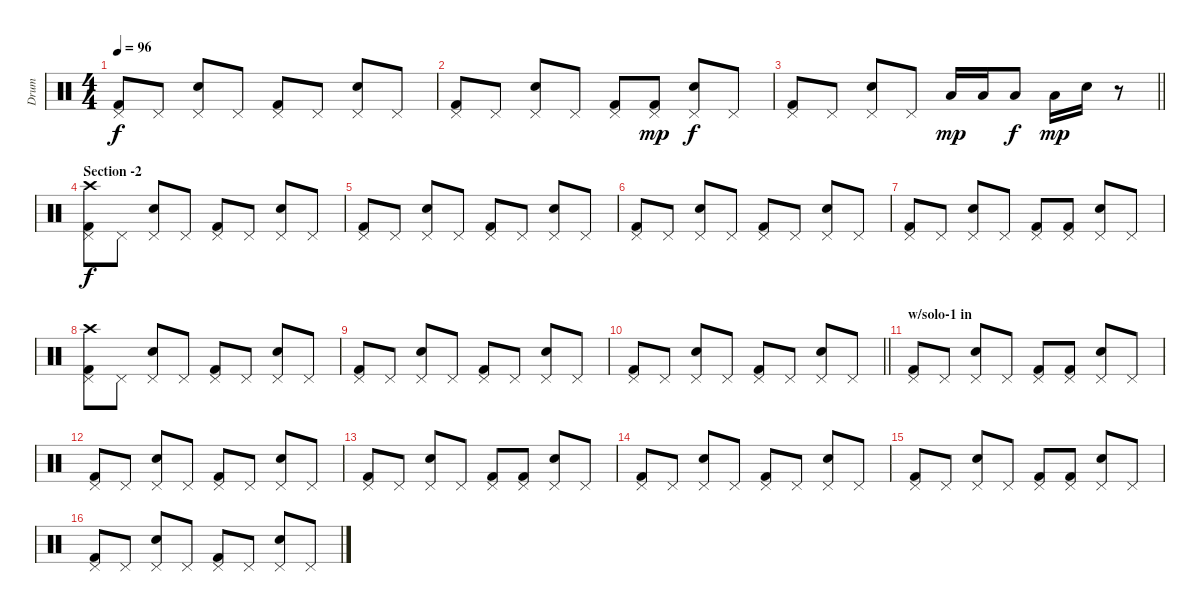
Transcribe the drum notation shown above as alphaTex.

\track ("Drum" "Drum") {instrument percussion}
\staff {score}
\articulation defaults
\ts (4 4)
\tempo 96
\clef neutral
\ks c
("Pedal Hi-Hat (hit)" "Kick (hit) 2").8{dy f} "Pedal Hi-Hat (hit)".8 ("Pedal Hi-Hat (hit)" "Snare (hit) 2").8 "Pedal Hi-Hat (hit)".8 ("Pedal Hi-Hat (hit)" "Kick (hit) 2").8 "Pedal Hi-Hat (hit)".8 ("Pedal Hi-Hat (hit)" "Snare (hit) 2").8 "Pedal Hi-Hat (hit)".8 |
("Pedal Hi-Hat (hit)" "Kick (hit) 2").8 "Pedal Hi-Hat (hit)".8 ("Pedal Hi-Hat (hit)" "Snare (hit) 2").8 "Pedal Hi-Hat (hit)".8 ("Pedal Hi-Hat (hit)" "Kick (hit) 2").8 ("Pedal Hi-Hat (hit)" "Kick (hit) 2").8{dy mp} ("Pedal Hi-Hat (hit)" "Snare (hit) 2").8{dy f} "Pedal Hi-Hat (hit)".8 |
\barLineRight lightlight
("Pedal Hi-Hat (hit)" "Kick (hit) 2").8 "Pedal Hi-Hat (hit)".8 ("Pedal Hi-Hat (hit)" "Snare (hit) 2").8 "Pedal Hi-Hat (hit)".8 "Low Tom (hit)".16{dy mp} "Low Tom (hit)".16 "Low Tom (hit)".8{dy f} "Low Tom (hit)".16{dy mp} "Snare (hit) 2".16 r.8 |
\section ("" "Section -2")
("Pedal Hi-Hat (hit)" "Crash high (hit)" "Kick (hit) 2").8{dy f} "Pedal Hi-Hat (hit)".8 ("Pedal Hi-Hat (hit)" "Snare (hit) 2").8 "Pedal Hi-Hat (hit)".8 ("Pedal Hi-Hat (hit)" "Kick (hit) 2").8 "Pedal Hi-Hat (hit)".8 ("Pedal Hi-Hat (hit)" "Snare (hit) 2").8 "Pedal Hi-Hat (hit)".8 |
("Pedal Hi-Hat (hit)" "Kick (hit) 2").8 "Pedal Hi-Hat (hit)".8 ("Pedal Hi-Hat (hit)" "Snare (hit) 2").8 "Pedal Hi-Hat (hit)".8 ("Pedal Hi-Hat (hit)" "Kick (hit) 2").8 "Pedal Hi-Hat (hit)".8 ("Pedal Hi-Hat (hit)" "Snare (hit) 2").8 "Pedal Hi-Hat (hit)".8 |
("Pedal Hi-Hat (hit)" "Kick (hit) 2").8 "Pedal Hi-Hat (hit)".8 ("Pedal Hi-Hat (hit)" "Snare (hit) 2").8 "Pedal Hi-Hat (hit)".8 ("Pedal Hi-Hat (hit)" "Kick (hit) 2").8 "Pedal Hi-Hat (hit)".8 ("Pedal Hi-Hat (hit)" "Snare (hit) 2").8 "Pedal Hi-Hat (hit)".8 |
("Pedal Hi-Hat (hit)" "Kick (hit) 2").8 "Pedal Hi-Hat (hit)".8 ("Pedal Hi-Hat (hit)" "Snare (hit) 2").8 "Pedal Hi-Hat (hit)".8 ("Pedal Hi-Hat (hit)" "Kick (hit) 2").8 ("Pedal Hi-Hat (hit)" "Kick (hit) 2").8 ("Pedal Hi-Hat (hit)" "Snare (hit) 2").8 "Pedal Hi-Hat (hit)".8 |
("Pedal Hi-Hat (hit)" "Crash high (hit)" "Kick (hit) 2").8 "Pedal Hi-Hat (hit)".8 ("Pedal Hi-Hat (hit)" "Snare (hit) 2").8 "Pedal Hi-Hat (hit)".8 ("Pedal Hi-Hat (hit)" "Kick (hit) 2").8 "Pedal Hi-Hat (hit)".8 ("Pedal Hi-Hat (hit)" "Snare (hit) 2").8 "Pedal Hi-Hat (hit)".8 |
("Pedal Hi-Hat (hit)" "Kick (hit) 2").8 "Pedal Hi-Hat (hit)".8 ("Pedal Hi-Hat (hit)" "Snare (hit) 2").8 "Pedal Hi-Hat (hit)".8 ("Pedal Hi-Hat (hit)" "Kick (hit) 2").8 "Pedal Hi-Hat (hit)".8 ("Pedal Hi-Hat (hit)" "Snare (hit) 2").8 "Pedal Hi-Hat (hit)".8 |
\barLineRight lightlight
("Pedal Hi-Hat (hit)" "Kick (hit) 2").8 "Pedal Hi-Hat (hit)".8 ("Pedal Hi-Hat (hit)" "Snare (hit) 2").8 "Pedal Hi-Hat (hit)".8 ("Pedal Hi-Hat (hit)" "Kick (hit) 2").8 "Pedal Hi-Hat (hit)".8 ("Pedal Hi-Hat (hit)" "Snare (hit) 2").8 "Pedal Hi-Hat (hit)".8 |
\section ("" "w/solo-1 in")
("Pedal Hi-Hat (hit)" "Kick (hit) 2").8 "Pedal Hi-Hat (hit)".8 ("Pedal Hi-Hat (hit)" "Snare (hit) 2").8 "Pedal Hi-Hat (hit)".8 ("Pedal Hi-Hat (hit)" "Kick (hit) 2").8 ("Pedal Hi-Hat (hit)" "Kick (hit) 2").8 ("Pedal Hi-Hat (hit)" "Snare (hit) 2").8 "Pedal Hi-Hat (hit)".8 |
("Pedal Hi-Hat (hit)" "Kick (hit) 2").8 "Pedal Hi-Hat (hit)".8 ("Pedal Hi-Hat (hit)" "Snare (hit) 2").8 "Pedal Hi-Hat (hit)".8 ("Pedal Hi-Hat (hit)" "Kick (hit) 2").8 "Pedal Hi-Hat (hit)".8 ("Pedal Hi-Hat (hit)" "Snare (hit) 2").8 "Pedal Hi-Hat (hit)".8 |
("Pedal Hi-Hat (hit)" "Kick (hit) 2").8 "Pedal Hi-Hat (hit)".8 ("Pedal Hi-Hat (hit)" "Snare (hit) 2").8 "Pedal Hi-Hat (hit)".8 ("Pedal Hi-Hat (hit)" "Kick (hit) 2").8 ("Pedal Hi-Hat (hit)" "Kick (hit) 2").8 ("Pedal Hi-Hat (hit)" "Snare (hit) 2").8 "Pedal Hi-Hat (hit)".8 |
("Pedal Hi-Hat (hit)" "Kick (hit) 2").8 "Pedal Hi-Hat (hit)".8 ("Pedal Hi-Hat (hit)" "Snare (hit) 2").8 "Pedal Hi-Hat (hit)".8 ("Pedal Hi-Hat (hit)" "Kick (hit) 2").8 "Pedal Hi-Hat (hit)".8 ("Pedal Hi-Hat (hit)" "Snare (hit) 2").8 "Pedal Hi-Hat (hit)".8 |
("Pedal Hi-Hat (hit)" "Kick (hit) 2").8 "Pedal Hi-Hat (hit)".8 ("Pedal Hi-Hat (hit)" "Snare (hit) 2").8 "Pedal Hi-Hat (hit)".8 ("Pedal Hi-Hat (hit)" "Kick (hit) 2").8 ("Pedal Hi-Hat (hit)" "Kick (hit) 2").8 ("Pedal Hi-Hat (hit)" "Snare (hit) 2").8 "Pedal Hi-Hat (hit)".8 |
("Pedal Hi-Hat (hit)" "Kick (hit) 2").8 "Pedal Hi-Hat (hit)".8 ("Pedal Hi-Hat (hit)" "Snare (hit) 2").8 "Pedal Hi-Hat (hit)".8 ("Pedal Hi-Hat (hit)" "Kick (hit) 2").8 "Pedal Hi-Hat (hit)".8 ("Pedal Hi-Hat (hit)" "Snare (hit) 2").8 "Pedal Hi-Hat (hit)".8
